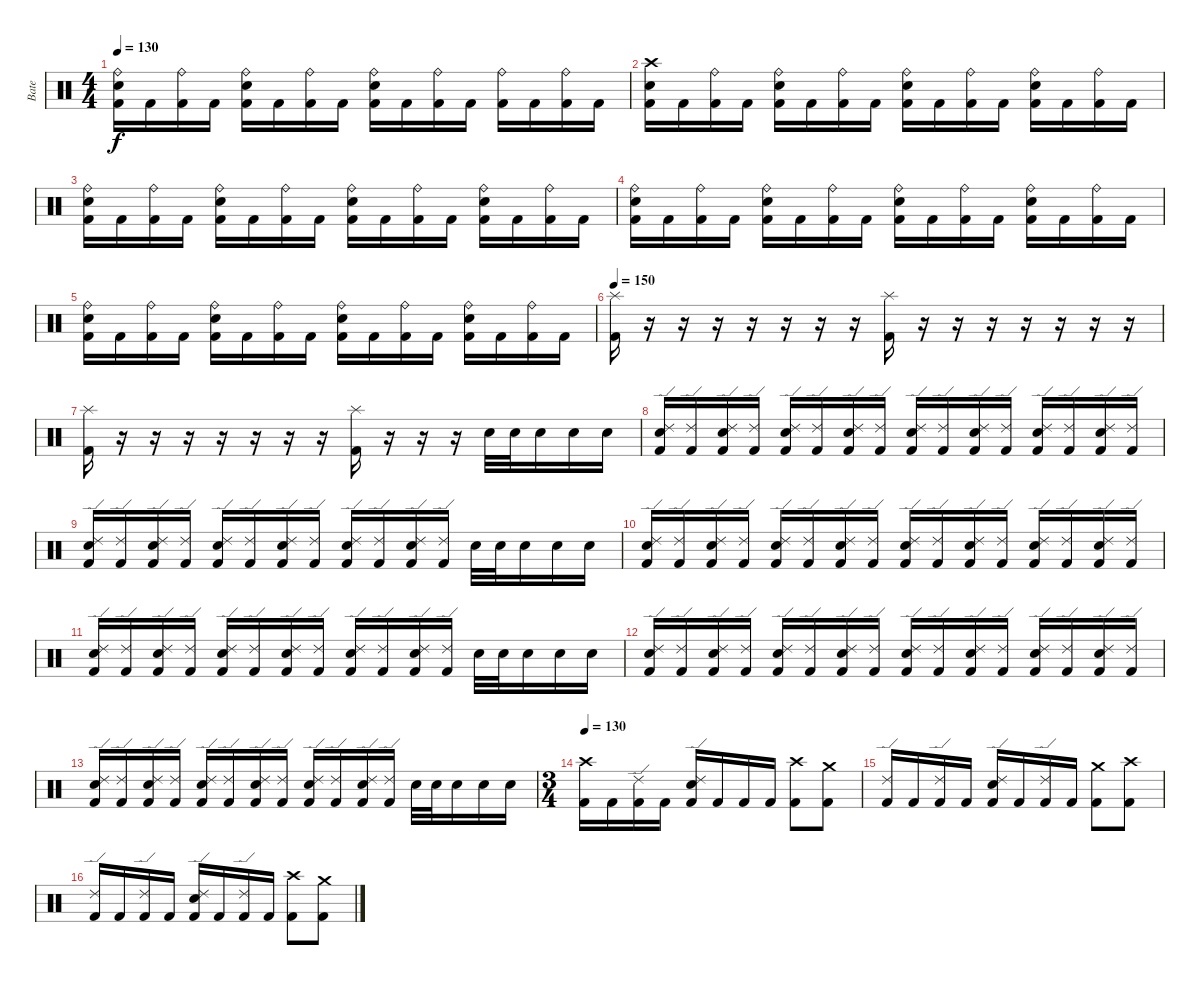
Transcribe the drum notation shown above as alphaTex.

\track ("Bate" "Bate") {instrument percussion}
\staff {score}
\articulation defaults
\ts (4 4)
\tempo 130
\clef neutral
\ks c
("Ride (bell)" "Snare (hit) 2" "Kick (hit) 2").16{dy f} "Kick (hit) 2".16 ("Ride (bell)" "Kick (hit) 2").16 "Kick (hit) 2".16 ("Ride (bell)" "Snare (hit) 2" "Kick (hit) 2").16 "Kick (hit) 2".16 ("Ride (bell)" "Kick (hit) 2").16 "Kick (hit) 2".16 ("Ride (bell)" "Snare (hit) 2" "Kick (hit) 2").16 "Kick (hit) 2".16 ("Ride (bell)" "Kick (hit) 2").16 "Kick (hit) 2".16 ("Ride (bell)" "Kick (hit) 2").16 "Kick (hit) 2".16 ("Ride (bell)" "Kick (hit) 2").16 "Kick (hit) 2".16 |
("Crash high (hit)" "Snare (hit) 2" "Kick (hit) 2").16 "Kick (hit) 2".16 ("Ride (bell)" "Kick (hit) 2").16 "Kick (hit) 2".16 ("Ride (bell)" "Snare (hit) 2" "Kick (hit) 2").16 "Kick (hit) 2".16 ("Ride (bell)" "Kick (hit) 2").16 "Kick (hit) 2".16 ("Ride (bell)" "Snare (hit) 2" "Kick (hit) 2").16 "Kick (hit) 2".16 ("Ride (bell)" "Kick (hit) 2").16 "Kick (hit) 2".16 ("Ride (bell)" "Snare (hit) 2" "Kick (hit) 2").16 "Kick (hit) 2".16 ("Ride (bell)" "Kick (hit) 2").16 "Kick (hit) 2".16 |
("Ride (bell)" "Snare (hit) 2" "Kick (hit) 2").16 "Kick (hit) 2".16 ("Ride (bell)" "Kick (hit) 2").16 "Kick (hit) 2".16 ("Ride (bell)" "Snare (hit) 2" "Kick (hit) 2").16 "Kick (hit) 2".16 ("Ride (bell)" "Kick (hit) 2").16 "Kick (hit) 2".16 ("Ride (bell)" "Snare (hit) 2" "Kick (hit) 2").16 "Kick (hit) 2".16 ("Ride (bell)" "Kick (hit) 2").16 "Kick (hit) 2".16 ("Ride (bell)" "Snare (hit) 2" "Kick (hit) 2").16 "Kick (hit) 2".16 ("Ride (bell)" "Kick (hit) 2").16 "Kick (hit) 2".16 |
("Ride (bell)" "Snare (hit) 2" "Kick (hit) 2").16 "Kick (hit) 2".16 ("Ride (bell)" "Kick (hit) 2").16 "Kick (hit) 2".16 ("Ride (bell)" "Snare (hit) 2" "Kick (hit) 2").16 "Kick (hit) 2".16 ("Ride (bell)" "Kick (hit) 2").16 "Kick (hit) 2".16 ("Ride (bell)" "Snare (hit) 2" "Kick (hit) 2").16 "Kick (hit) 2".16 ("Ride (bell)" "Kick (hit) 2").16 "Kick (hit) 2".16 ("Ride (bell)" "Snare (hit) 2" "Kick (hit) 2").16 "Kick (hit) 2".16 ("Ride (bell)" "Kick (hit) 2").16 "Kick (hit) 2".16 |
("Ride (bell)" "Snare (hit) 2" "Kick (hit) 2").16 "Kick (hit) 2".16 ("Ride (bell)" "Kick (hit) 2").16 "Kick (hit) 2".16 ("Ride (bell)" "Snare (hit) 2" "Kick (hit) 2").16 "Kick (hit) 2".16 ("Ride (bell)" "Kick (hit) 2").16 "Kick (hit) 2".16 ("Ride (bell)" "Snare (hit) 2" "Kick (hit) 2").16 "Kick (hit) 2".16 ("Ride (bell)" "Kick (hit) 2").16 "Kick (hit) 2".16 ("Ride (bell)" "Snare (hit) 2" "Kick (hit) 2").16 "Kick (hit) 2".16 ("Ride (bell)" "Kick (hit) 2").16 "Kick (hit) 2".16 |
\tempo 150
("Splash (hit)" "Kick (hit) 2").16 r.16 r.16 r.16 r.16 r.16 r.16 r.16 ("Splash (hit)" "Kick (hit) 2").16 r.16 r.16 r.16 r.16 r.16 r.16 r.16 |
("Splash (hit)" "Kick (hit) 2").16 r.16 r.16 r.16 r.16 r.16 r.16 r.16 ("Splash (hit)" "Kick (hit) 2").16 r.16 r.16 r.16 "Snare (hit) 2".32 "Snare (hit) 2".32 "Snare (hit) 2".16 "Snare (hit) 2".16 "Snare (hit) 2".16 |
("Ride (edge) 2" "Snare (hit) 2" "Kick (hit) 2").16 ("Ride (edge) 2" "Kick (hit) 2").16 ("Ride (edge) 2" "Snare (hit) 2" "Kick (hit) 2").16 ("Ride (edge) 2" "Kick (hit) 2").16 ("Ride (edge) 2" "Snare (hit) 2" "Kick (hit) 2").16 ("Ride (edge) 2" "Kick (hit) 2").16 ("Ride (edge) 2" "Snare (hit) 2" "Kick (hit) 2").16 ("Ride (edge) 2" "Kick (hit) 2").16 ("Ride (edge) 2" "Snare (hit) 2" "Kick (hit) 2").16 ("Ride (edge) 2" "Kick (hit) 2").16 ("Ride (edge) 2" "Snare (hit) 2" "Kick (hit) 2").16 ("Ride (edge) 2" "Kick (hit) 2").16 ("Ride (edge) 2" "Snare (hit) 2" "Kick (hit) 2").16 ("Ride (edge) 2" "Kick (hit) 2").16 ("Ride (edge) 2" "Snare (hit) 2" "Kick (hit) 2").16 ("Ride (edge) 2" "Kick (hit) 2").16 |
("Ride (edge) 2" "Snare (hit) 2" "Kick (hit) 2").16 ("Ride (edge) 2" "Kick (hit) 2").16 ("Ride (edge) 2" "Snare (hit) 2" "Kick (hit) 2").16 ("Ride (edge) 2" "Kick (hit) 2").16 ("Ride (edge) 2" "Snare (hit) 2" "Kick (hit) 2").16 ("Ride (edge) 2" "Kick (hit) 2").16 ("Ride (edge) 2" "Snare (hit) 2" "Kick (hit) 2").16 ("Ride (edge) 2" "Kick (hit) 2").16 ("Ride (edge) 2" "Snare (hit) 2" "Kick (hit) 2").16 ("Ride (edge) 2" "Kick (hit) 2").16 ("Ride (edge) 2" "Snare (hit) 2" "Kick (hit) 2").16 ("Ride (edge) 2" "Kick (hit) 2").16 "Snare (hit) 2".32 "Snare (hit) 2".32 "Snare (hit) 2".16 "Snare (hit) 2".16 "Snare (hit) 2".16 |
("Ride (edge) 2" "Snare (hit) 2" "Kick (hit) 2").16 ("Ride (edge) 2" "Kick (hit) 2").16 ("Ride (edge) 2" "Snare (hit) 2" "Kick (hit) 2").16 ("Ride (edge) 2" "Kick (hit) 2").16 ("Ride (edge) 2" "Snare (hit) 2" "Kick (hit) 2").16 ("Ride (edge) 2" "Kick (hit) 2").16 ("Ride (edge) 2" "Snare (hit) 2" "Kick (hit) 2").16 ("Ride (edge) 2" "Kick (hit) 2").16 ("Ride (edge) 2" "Snare (hit) 2" "Kick (hit) 2").16 ("Ride (edge) 2" "Kick (hit) 2").16 ("Ride (edge) 2" "Snare (hit) 2" "Kick (hit) 2").16 ("Ride (edge) 2" "Kick (hit) 2").16 ("Ride (edge) 2" "Snare (hit) 2" "Kick (hit) 2").16 ("Ride (edge) 2" "Kick (hit) 2").16 ("Ride (edge) 2" "Snare (hit) 2" "Kick (hit) 2").16 ("Ride (edge) 2" "Kick (hit) 2").16 |
("Ride (edge) 2" "Snare (hit) 2" "Kick (hit) 2").16 ("Ride (edge) 2" "Kick (hit) 2").16 ("Ride (edge) 2" "Snare (hit) 2" "Kick (hit) 2").16 ("Ride (edge) 2" "Kick (hit) 2").16 ("Ride (edge) 2" "Snare (hit) 2" "Kick (hit) 2").16 ("Ride (edge) 2" "Kick (hit) 2").16 ("Ride (edge) 2" "Snare (hit) 2" "Kick (hit) 2").16 ("Ride (edge) 2" "Kick (hit) 2").16 ("Ride (edge) 2" "Snare (hit) 2" "Kick (hit) 2").16 ("Ride (edge) 2" "Kick (hit) 2").16 ("Ride (edge) 2" "Snare (hit) 2" "Kick (hit) 2").16 ("Ride (edge) 2" "Kick (hit) 2").16 "Snare (hit) 2".32 "Snare (hit) 2".32 "Snare (hit) 2".16 "Snare (hit) 2".16 "Snare (hit) 2".16 |
("Ride (edge) 2" "Snare (hit) 2" "Kick (hit) 2").16 ("Ride (edge) 2" "Kick (hit) 2").16 ("Ride (edge) 2" "Snare (hit) 2" "Kick (hit) 2").16 ("Ride (edge) 2" "Kick (hit) 2").16 ("Ride (edge) 2" "Snare (hit) 2" "Kick (hit) 2").16 ("Ride (edge) 2" "Kick (hit) 2").16 ("Ride (edge) 2" "Snare (hit) 2" "Kick (hit) 2").16 ("Ride (edge) 2" "Kick (hit) 2").16 ("Ride (edge) 2" "Snare (hit) 2" "Kick (hit) 2").16 ("Ride (edge) 2" "Kick (hit) 2").16 ("Ride (edge) 2" "Snare (hit) 2" "Kick (hit) 2").16 ("Ride (edge) 2" "Kick (hit) 2").16 ("Ride (edge) 2" "Snare (hit) 2" "Kick (hit) 2").16 ("Ride (edge) 2" "Kick (hit) 2").16 ("Ride (edge) 2" "Snare (hit) 2" "Kick (hit) 2").16 ("Ride (edge) 2" "Kick (hit) 2").16 |
("Ride (edge) 2" "Snare (hit) 2" "Kick (hit) 2").16 ("Ride (edge) 2" "Kick (hit) 2").16 ("Ride (edge) 2" "Snare (hit) 2" "Kick (hit) 2").16 ("Ride (edge) 2" "Kick (hit) 2").16 ("Ride (edge) 2" "Snare (hit) 2" "Kick (hit) 2").16 ("Ride (edge) 2" "Kick (hit) 2").16 ("Ride (edge) 2" "Snare (hit) 2" "Kick (hit) 2").16 ("Ride (edge) 2" "Kick (hit) 2").16 ("Ride (edge) 2" "Snare (hit) 2" "Kick (hit) 2").16 ("Ride (edge) 2" "Kick (hit) 2").16 ("Ride (edge) 2" "Snare (hit) 2" "Kick (hit) 2").16 ("Ride (edge) 2" "Kick (hit) 2").16 "Snare (hit) 2".32 "Snare (hit) 2".32 "Snare (hit) 2".16 "Snare (hit) 2".16 "Snare (hit) 2".16 |
\ts (3 4)
\tempo 130
("Crash high (hit)" "Kick (hit) 2").16 "Kick (hit) 2".16 ("Ride (edge) 2" "Kick (hit) 2").16 "Kick (hit) 2".16 ("Ride (edge) 2" "Snare (hit) 2" "Kick (hit) 2").16 "Kick (hit) 2".16 "Kick (hit) 2".16 "Kick (hit) 2".16 ("Crash high (hit)" "Kick (hit) 2").8 ("Crash medium (hit)" "Kick (hit) 2").8 |
("Ride (edge) 2" "Kick (hit) 2").16 "Kick (hit) 2".16 ("Ride (edge) 2" "Kick (hit) 2").16 "Kick (hit) 2".16 ("Ride (edge) 2" "Snare (hit) 2" "Kick (hit) 2").16 "Kick (hit) 2".16 ("Ride (edge) 2" "Kick (hit) 2").16 "Kick (hit) 2".16 ("Crash medium (hit)" "Kick (hit) 2").8 ("Crash high (hit)" "Kick (hit) 2").8 |
("Ride (edge) 2" "Kick (hit) 2").16 "Kick (hit) 2".16 ("Ride (edge) 2" "Kick (hit) 2").16 "Kick (hit) 2".16 ("Ride (edge) 2" "Snare (hit) 2" "Kick (hit) 2").16 "Kick (hit) 2".16 ("Ride (edge) 2" "Kick (hit) 2").16 "Kick (hit) 2".16 ("Crash high (hit)" "Kick (hit) 2").8 ("Crash medium (hit)" "Kick (hit) 2").8
